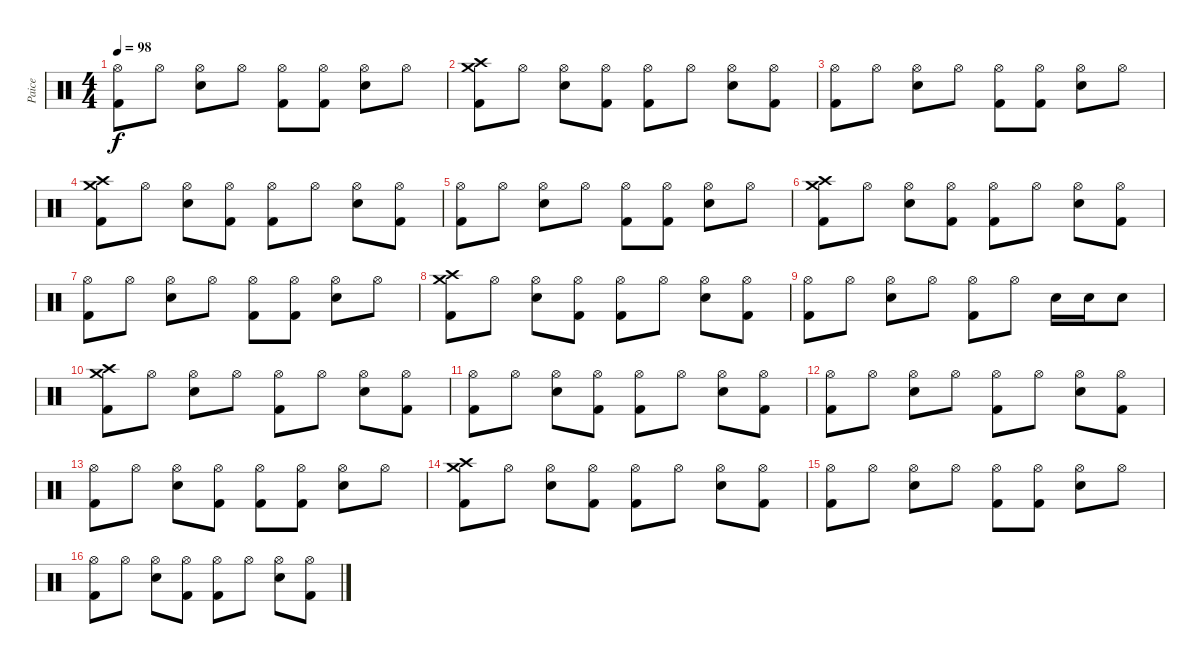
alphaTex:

\track ("Paice" "Paice") {instrument percussion}
\staff {score}
\articulation defaults
\ts (4 4)
\tempo 98
\clef neutral
\ks c
("Hi-Hat (open)" "Kick (hit) 2").8{dy f} "Hi-Hat (open)".8 ("Hi-Hat (open)" "Electric Snare (hit)").8 "Hi-Hat (open)".8 ("Hi-Hat (open)" "Kick (hit) 2").8 ("Hi-Hat (open)" "Kick (hit) 2").8 ("Hi-Hat (open)" "Electric Snare (hit)").8 "Hi-Hat (open)".8 |
("Crash high (hit)" "Crash medium (hit)" "Kick (hit) 2").8 "Hi-Hat (open)".8 ("Hi-Hat (open)" "Electric Snare (hit)").8 ("Hi-Hat (open)" "Kick (hit) 2").8 ("Hi-Hat (open)" "Kick (hit) 2").8 "Hi-Hat (open)".8 ("Hi-Hat (open)" "Electric Snare (hit)").8 ("Hi-Hat (open)" "Kick (hit) 2").8 |
("Hi-Hat (open)" "Kick (hit) 2").8 "Hi-Hat (open)".8 ("Hi-Hat (open)" "Electric Snare (hit)").8 "Hi-Hat (open)".8 ("Hi-Hat (open)" "Kick (hit) 2").8 ("Hi-Hat (open)" "Kick (hit) 2").8 ("Hi-Hat (open)" "Electric Snare (hit)").8 "Hi-Hat (open)".8 |
("Crash high (hit)" "Crash medium (hit)" "Kick (hit) 2").8 "Hi-Hat (open)".8 ("Hi-Hat (open)" "Electric Snare (hit)").8 ("Hi-Hat (open)" "Kick (hit) 2").8 ("Hi-Hat (open)" "Kick (hit) 2").8 "Hi-Hat (open)".8 ("Hi-Hat (open)" "Electric Snare (hit)").8 ("Hi-Hat (open)" "Kick (hit) 2").8 |
("Hi-Hat (open)" "Kick (hit) 2").8 "Hi-Hat (open)".8 ("Hi-Hat (open)" "Electric Snare (hit)").8 "Hi-Hat (open)".8 ("Hi-Hat (open)" "Kick (hit) 2").8 ("Hi-Hat (open)" "Kick (hit) 2").8 ("Hi-Hat (open)" "Electric Snare (hit)").8 "Hi-Hat (open)".8 |
("Crash high (hit)" "Crash medium (hit)" "Kick (hit) 2").8 "Hi-Hat (open)".8 ("Hi-Hat (open)" "Electric Snare (hit)").8 ("Hi-Hat (open)" "Kick (hit) 2").8 ("Hi-Hat (open)" "Kick (hit) 2").8 "Hi-Hat (open)".8 ("Hi-Hat (open)" "Electric Snare (hit)").8 ("Hi-Hat (open)" "Kick (hit) 2").8 |
("Hi-Hat (open)" "Kick (hit) 2").8 "Hi-Hat (open)".8 ("Hi-Hat (open)" "Electric Snare (hit)").8 "Hi-Hat (open)".8 ("Hi-Hat (open)" "Kick (hit) 2").8 ("Hi-Hat (open)" "Kick (hit) 2").8 ("Hi-Hat (open)" "Electric Snare (hit)").8 "Hi-Hat (open)".8 |
("Crash high (hit)" "Crash medium (hit)" "Kick (hit) 2").8 "Hi-Hat (open)".8 ("Hi-Hat (open)" "Electric Snare (hit)").8 ("Hi-Hat (open)" "Kick (hit) 2").8 ("Hi-Hat (open)" "Kick (hit) 2").8 "Hi-Hat (open)".8 ("Hi-Hat (open)" "Electric Snare (hit)").8 ("Hi-Hat (open)" "Kick (hit) 2").8 |
("Hi-Hat (open)" "Kick (hit) 2").8 "Hi-Hat (open)".8 ("Hi-Hat (open)" "Electric Snare (hit)").8 "Hi-Hat (open)".8 ("Hi-Hat (open)" "Kick (hit) 2").8 "Hi-Hat (open)".8 "Electric Snare (hit)".16 "Electric Snare (hit)".16 "Electric Snare (hit)".8 |
("Crash high (hit)" "Crash medium (hit)" "Kick (hit) 2").8 "Hi-Hat (open)".8 ("Hi-Hat (open)" "Electric Snare (hit)").8 "Hi-Hat (open)".8 ("Hi-Hat (open)" "Kick (hit) 2").8 "Hi-Hat (open)".8 ("Hi-Hat (open)" "Electric Snare (hit)").8 ("Hi-Hat (open)" "Kick (hit) 2").8 |
("Hi-Hat (open)" "Kick (hit) 2").8 "Hi-Hat (open)".8 ("Hi-Hat (open)" "Electric Snare (hit)").8 ("Hi-Hat (open)" "Kick (hit) 2").8 ("Hi-Hat (open)" "Kick (hit) 2").8 "Hi-Hat (open)".8 ("Hi-Hat (open)" "Electric Snare (hit)").8 ("Hi-Hat (open)" "Kick (hit) 2").8 |
("Hi-Hat (open)" "Kick (hit) 2").8 "Hi-Hat (open)".8 ("Hi-Hat (open)" "Electric Snare (hit)").8 "Hi-Hat (open)".8 ("Hi-Hat (open)" "Kick (hit) 2").8 "Hi-Hat (open)".8 ("Hi-Hat (open)" "Electric Snare (hit)").8 ("Hi-Hat (open)" "Kick (hit) 2").8 |
("Hi-Hat (open)" "Kick (hit) 2").8 "Hi-Hat (open)".8 ("Hi-Hat (open)" "Electric Snare (hit)").8 ("Hi-Hat (open)" "Kick (hit) 2").8 ("Hi-Hat (open)" "Kick (hit) 2").8 ("Hi-Hat (open)" "Kick (hit) 2").8 ("Hi-Hat (open)" "Electric Snare (hit)").8 "Hi-Hat (open)".8 |
("Crash high (hit)" "Crash medium (hit)" "Kick (hit) 2").8 "Hi-Hat (open)".8 ("Hi-Hat (open)" "Electric Snare (hit)").8 ("Hi-Hat (open)" "Kick (hit) 2").8 ("Hi-Hat (open)" "Kick (hit) 2").8 "Hi-Hat (open)".8 ("Hi-Hat (open)" "Electric Snare (hit)").8 ("Hi-Hat (open)" "Kick (hit) 2").8 |
("Hi-Hat (open)" "Kick (hit) 2").8 "Hi-Hat (open)".8 ("Hi-Hat (open)" "Electric Snare (hit)").8 "Hi-Hat (open)".8 ("Hi-Hat (open)" "Kick (hit) 2").8 ("Hi-Hat (open)" "Kick (hit) 2").8 ("Hi-Hat (open)" "Electric Snare (hit)").8 "Hi-Hat (open)".8 |
("Hi-Hat (open)" "Kick (hit) 2").8 "Hi-Hat (open)".8 ("Hi-Hat (open)" "Electric Snare (hit)").8 ("Hi-Hat (open)" "Kick (hit) 2").8 ("Hi-Hat (open)" "Kick (hit) 2").8 "Hi-Hat (open)".8 ("Hi-Hat (open)" "Electric Snare (hit)").8 ("Hi-Hat (open)" "Kick (hit) 2").8
